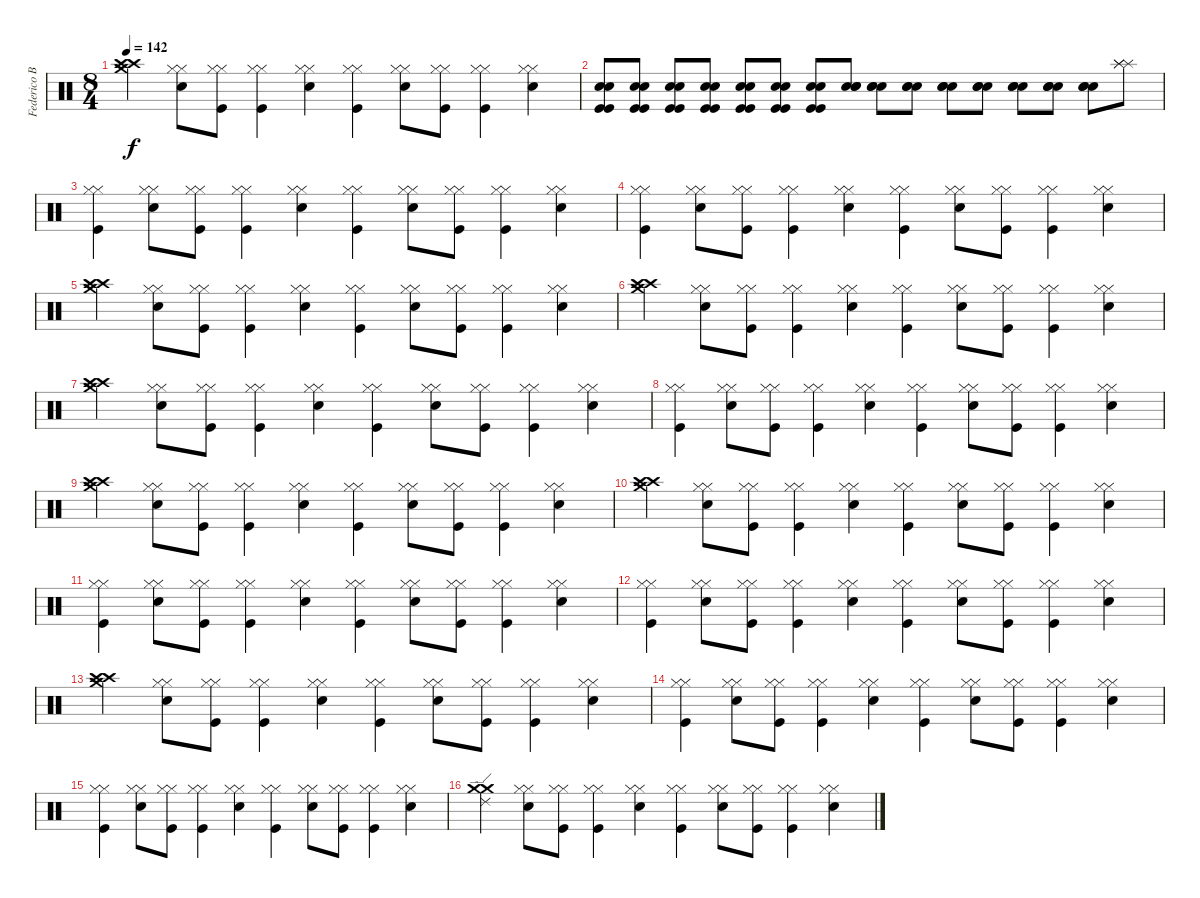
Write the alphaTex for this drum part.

\track ("Federico Bogliaccino-Drums" "Federico B") {instrument percussion}
\staff {score}
\articulation defaults
\ts (8 4)
\tempo 142
\clef neutral
\ks c
("Crash medium (hit)" "Crash high (hit)" "Crash high (hit)").4{dy f} ("Hi-Hat (closed)" "Hi-Hat (closed)" "Snare (hit) 2").8 ("Hi-Hat (closed)" "Hi-Hat (closed)" "Kick (hit)").8 ("Hi-Hat (closed)" "Hi-Hat (closed)" "Kick (hit)").4 ("Hi-Hat (closed)" "Hi-Hat (closed)" "Snare (hit) 2").4 ("Hi-Hat (closed)" "Hi-Hat (closed)" "Kick (hit)").4 ("Hi-Hat (closed)" "Hi-Hat (closed)" "Snare (hit) 2").8 ("Hi-Hat (closed)" "Hi-Hat (closed)" "Kick (hit)").8 ("Hi-Hat (closed)" "Hi-Hat (closed)" "Kick (hit)").4 ("Hi-Hat (closed)" "Hi-Hat (closed)" "Snare (hit) 2").4 |
("Kick (hit)" "Kick (hit)" "Snare (hit) 2" "Snare (hit) 2").8 ("Kick (hit)" "Kick (hit)" "Snare (hit) 2" "Snare (hit) 2").8 ("Kick (hit)" "Kick (hit)" "Snare (hit) 2" "Snare (hit) 2").8 ("Kick (hit)" "Kick (hit)" "Snare (hit) 2" "Snare (hit) 2").8 ("Kick (hit)" "Kick (hit)" "Snare (hit) 2" "Snare (hit) 2").8 ("Kick (hit)" "Kick (hit)" "Snare (hit) 2" "Snare (hit) 2").8 ("Kick (hit)" "Kick (hit)" "Snare (hit) 2" "Snare (hit) 2").8 ("Hand Clap (hit)" "Snare (hit) 2" "Snare (hit) 2").8 ("Hand Clap (hit)" "Snare (hit) 2" "Snare (hit) 2").8 ("Hand Clap (hit)" "Snare (hit) 2" "Snare (hit) 2").8 ("Hand Clap (hit)" "Snare (hit) 2" "Snare (hit) 2").8 ("Hand Clap (hit)" "Snare (hit) 2" "Snare (hit) 2").8 ("Hand Clap (hit)" "Snare (hit) 2" "Snare (hit) 2").8 ("Hand Clap (hit)" "Snare (hit) 2" "Snare (hit) 2").8 ("Hand Clap (hit)" "Snare (hit) 2" "Snare (hit) 2").8 ("Splash (hit)" "Splash (hit)" "Splash (hit)").8 |
("Hi-Hat (closed)" "Hi-Hat (closed)" "Kick (hit)").4 ("Hi-Hat (closed)" "Hi-Hat (closed)" "Snare (hit) 2").8 ("Hi-Hat (closed)" "Hi-Hat (closed)" "Kick (hit)").8 ("Hi-Hat (closed)" "Hi-Hat (closed)" "Kick (hit)").4 ("Hi-Hat (closed)" "Hi-Hat (closed)" "Snare (hit) 2").4 ("Hi-Hat (closed)" "Hi-Hat (closed)" "Kick (hit)").4 ("Hi-Hat (closed)" "Hi-Hat (closed)" "Snare (hit) 2").8 ("Hi-Hat (closed)" "Hi-Hat (closed)" "Kick (hit)").8 ("Hi-Hat (closed)" "Hi-Hat (closed)" "Kick (hit)").4 ("Hi-Hat (closed)" "Hi-Hat (closed)" "Snare (hit) 2").4 |
("Hi-Hat (closed)" "Hi-Hat (closed)" "Kick (hit)").4 ("Hi-Hat (closed)" "Hi-Hat (closed)" "Snare (hit) 2").8 ("Hi-Hat (closed)" "Hi-Hat (closed)" "Kick (hit)").8 ("Hi-Hat (closed)" "Hi-Hat (closed)" "Kick (hit)").4 ("Hi-Hat (closed)" "Hi-Hat (closed)" "Snare (hit) 2").4 ("Hi-Hat (closed)" "Hi-Hat (closed)" "Kick (hit)").4 ("Hi-Hat (closed)" "Hi-Hat (closed)" "Snare (hit) 2").8 ("Hi-Hat (closed)" "Hi-Hat (closed)" "Kick (hit)").8 ("Hi-Hat (closed)" "Hi-Hat (closed)" "Kick (hit)").4 ("Hi-Hat (closed)" "Hi-Hat (closed)" "Snare (hit) 2").4 |
("Crash medium (hit)" "Crash high (hit)" "Crash high (hit)").4 ("Hi-Hat (closed)" "Hi-Hat (closed)" "Snare (hit) 2").8 ("Hi-Hat (closed)" "Hi-Hat (closed)" "Kick (hit)").8 ("Hi-Hat (closed)" "Hi-Hat (closed)" "Kick (hit)").4 ("Hi-Hat (closed)" "Hi-Hat (closed)" "Snare (hit) 2").4 ("Hi-Hat (closed)" "Hi-Hat (closed)" "Kick (hit)").4 ("Hi-Hat (closed)" "Hi-Hat (closed)" "Snare (hit) 2").8 ("Hi-Hat (closed)" "Hi-Hat (closed)" "Kick (hit)").8 ("Hi-Hat (closed)" "Hi-Hat (closed)" "Kick (hit)").4 ("Hi-Hat (closed)" "Hi-Hat (closed)" "Snare (hit) 2").4 |
("Crash medium (hit)" "Crash high (hit)" "Crash high (hit)").4 ("Hi-Hat (closed)" "Hi-Hat (closed)" "Snare (hit) 2").8 ("Hi-Hat (closed)" "Hi-Hat (closed)" "Kick (hit)").8 ("Hi-Hat (closed)" "Hi-Hat (closed)" "Kick (hit)").4 ("Hi-Hat (closed)" "Hi-Hat (closed)" "Snare (hit) 2").4 ("Hi-Hat (closed)" "Hi-Hat (closed)" "Kick (hit)").4 ("Hi-Hat (closed)" "Hi-Hat (closed)" "Snare (hit) 2").8 ("Hi-Hat (closed)" "Hi-Hat (closed)" "Kick (hit)").8 ("Hi-Hat (closed)" "Hi-Hat (closed)" "Kick (hit)").4 ("Hi-Hat (closed)" "Hi-Hat (closed)" "Snare (hit) 2").4 |
("Crash medium (hit)" "Crash high (hit)" "Crash high (hit)").4 ("Hi-Hat (closed)" "Hi-Hat (closed)" "Snare (hit) 2").8 ("Hi-Hat (closed)" "Hi-Hat (closed)" "Kick (hit)").8 ("Hi-Hat (closed)" "Hi-Hat (closed)" "Kick (hit)").4 ("Hi-Hat (closed)" "Hi-Hat (closed)" "Snare (hit) 2").4 ("Hi-Hat (closed)" "Hi-Hat (closed)" "Kick (hit)").4 ("Hi-Hat (closed)" "Hi-Hat (closed)" "Snare (hit) 2").8 ("Hi-Hat (closed)" "Hi-Hat (closed)" "Kick (hit)").8 ("Hi-Hat (closed)" "Hi-Hat (closed)" "Kick (hit)").4 ("Hi-Hat (closed)" "Hi-Hat (closed)" "Snare (hit) 2").4 |
("Hi-Hat (closed)" "Hi-Hat (closed)" "Kick (hit)").4 ("Hi-Hat (closed)" "Hi-Hat (closed)" "Snare (hit) 2").8 ("Hi-Hat (closed)" "Hi-Hat (closed)" "Kick (hit)").8 ("Hi-Hat (closed)" "Hi-Hat (closed)" "Kick (hit)").4 ("Hi-Hat (closed)" "Hi-Hat (closed)" "Snare (hit) 2").4 ("Hi-Hat (closed)" "Hi-Hat (closed)" "Kick (hit)").4 ("Hi-Hat (closed)" "Hi-Hat (closed)" "Snare (hit) 2").8 ("Hi-Hat (closed)" "Hi-Hat (closed)" "Kick (hit)").8 ("Hi-Hat (closed)" "Hi-Hat (closed)" "Kick (hit)").4 ("Hi-Hat (closed)" "Hi-Hat (closed)" "Snare (hit) 2").4 |
("Crash medium (hit)" "Crash high (hit)" "Crash high (hit)").4 ("Hi-Hat (closed)" "Hi-Hat (closed)" "Snare (hit) 2").8 ("Hi-Hat (closed)" "Hi-Hat (closed)" "Kick (hit)").8 ("Hi-Hat (closed)" "Hi-Hat (closed)" "Kick (hit)").4 ("Hi-Hat (closed)" "Hi-Hat (closed)" "Snare (hit) 2").4 ("Hi-Hat (closed)" "Hi-Hat (closed)" "Kick (hit)").4 ("Hi-Hat (closed)" "Hi-Hat (closed)" "Snare (hit) 2").8 ("Hi-Hat (closed)" "Hi-Hat (closed)" "Kick (hit)").8 ("Hi-Hat (closed)" "Hi-Hat (closed)" "Kick (hit)").4 ("Hi-Hat (closed)" "Hi-Hat (closed)" "Snare (hit) 2").4 |
("Crash medium (hit)" "Crash high (hit)" "Crash high (hit)").4 ("Hi-Hat (closed)" "Hi-Hat (closed)" "Snare (hit) 2").8 ("Hi-Hat (closed)" "Hi-Hat (closed)" "Kick (hit)").8 ("Hi-Hat (closed)" "Hi-Hat (closed)" "Kick (hit)").4 ("Hi-Hat (closed)" "Hi-Hat (closed)" "Snare (hit) 2").4 ("Hi-Hat (closed)" "Hi-Hat (closed)" "Kick (hit)").4 ("Hi-Hat (closed)" "Hi-Hat (closed)" "Snare (hit) 2").8 ("Hi-Hat (closed)" "Hi-Hat (closed)" "Kick (hit)").8 ("Hi-Hat (closed)" "Hi-Hat (closed)" "Kick (hit)").4 ("Hi-Hat (closed)" "Hi-Hat (closed)" "Snare (hit) 2").4 |
("Hi-Hat (closed)" "Hi-Hat (closed)" "Kick (hit)").4 ("Hi-Hat (closed)" "Hi-Hat (closed)" "Snare (hit) 2").8 ("Hi-Hat (closed)" "Hi-Hat (closed)" "Kick (hit)").8 ("Hi-Hat (closed)" "Hi-Hat (closed)" "Kick (hit)").4 ("Hi-Hat (closed)" "Hi-Hat (closed)" "Snare (hit) 2").4 ("Hi-Hat (closed)" "Hi-Hat (closed)" "Kick (hit)").4 ("Hi-Hat (closed)" "Hi-Hat (closed)" "Snare (hit) 2").8 ("Hi-Hat (closed)" "Hi-Hat (closed)" "Kick (hit)").8 ("Hi-Hat (closed)" "Hi-Hat (closed)" "Kick (hit)").4 ("Hi-Hat (closed)" "Hi-Hat (closed)" "Snare (hit) 2").4 |
("Hi-Hat (closed)" "Hi-Hat (closed)" "Kick (hit)").4 ("Hi-Hat (closed)" "Hi-Hat (closed)" "Snare (hit) 2").8 ("Hi-Hat (closed)" "Hi-Hat (closed)" "Kick (hit)").8 ("Hi-Hat (closed)" "Hi-Hat (closed)" "Kick (hit)").4 ("Hi-Hat (closed)" "Hi-Hat (closed)" "Snare (hit) 2").4 ("Hi-Hat (closed)" "Hi-Hat (closed)" "Kick (hit)").4 ("Hi-Hat (closed)" "Hi-Hat (closed)" "Snare (hit) 2").8 ("Hi-Hat (closed)" "Hi-Hat (closed)" "Kick (hit)").8 ("Hi-Hat (closed)" "Hi-Hat (closed)" "Kick (hit)").4 ("Hi-Hat (closed)" "Hi-Hat (closed)" "Snare (hit) 2").4 |
("Crash high (hit)" "Crash high (hit)" "Crash medium (hit)").4 ("Hi-Hat (closed)" "Hi-Hat (closed)" "Snare (hit) 2").8 ("Hi-Hat (closed)" "Hi-Hat (closed)" "Kick (hit)").8 ("Hi-Hat (closed)" "Hi-Hat (closed)" "Kick (hit)").4 ("Hi-Hat (closed)" "Hi-Hat (closed)" "Snare (hit) 2").4 ("Hi-Hat (closed)" "Hi-Hat (closed)" "Kick (hit)").4 ("Hi-Hat (closed)" "Hi-Hat (closed)" "Snare (hit) 2").8 ("Hi-Hat (closed)" "Hi-Hat (closed)" "Kick (hit)").8 ("Hi-Hat (closed)" "Hi-Hat (closed)" "Kick (hit)").4 ("Hi-Hat (closed)" "Hi-Hat (closed)" "Snare (hit) 2").4 |
("Hi-Hat (closed)" "Hi-Hat (closed)" "Kick (hit)").4 ("Hi-Hat (closed)" "Hi-Hat (closed)" "Snare (hit) 2").8 ("Hi-Hat (closed)" "Hi-Hat (closed)" "Kick (hit)").8 ("Hi-Hat (closed)" "Hi-Hat (closed)" "Kick (hit)").4 ("Hi-Hat (closed)" "Hi-Hat (closed)" "Snare (hit) 2").4 ("Hi-Hat (closed)" "Hi-Hat (closed)" "Kick (hit)").4 ("Hi-Hat (closed)" "Hi-Hat (closed)" "Snare (hit) 2").8 ("Hi-Hat (closed)" "Hi-Hat (closed)" "Kick (hit)").8 ("Hi-Hat (closed)" "Hi-Hat (closed)" "Kick (hit)").4 ("Hi-Hat (closed)" "Hi-Hat (closed)" "Snare (hit) 2").4 |
("Hi-Hat (closed)" "Hi-Hat (closed)" "Kick (hit)").4 ("Hi-Hat (closed)" "Hi-Hat (closed)" "Snare (hit) 2").8 ("Hi-Hat (closed)" "Hi-Hat (closed)" "Kick (hit)").8 ("Hi-Hat (closed)" "Hi-Hat (closed)" "Kick (hit)").4 ("Hi-Hat (closed)" "Hi-Hat (closed)" "Snare (hit) 2").4 ("Hi-Hat (closed)" "Hi-Hat (closed)" "Kick (hit)").4 ("Hi-Hat (closed)" "Hi-Hat (closed)" "Snare (hit) 2").8 ("Hi-Hat (closed)" "Hi-Hat (closed)" "Kick (hit)").8 ("Hi-Hat (closed)" "Hi-Hat (closed)" "Kick (hit)").4 ("Hi-Hat (closed)" "Hi-Hat (closed)" "Snare (hit) 2").4 |
("Crash medium (hit)" "Crash medium (hit)" "Ride (edge) 2").4 ("Hi-Hat (closed)" "Hi-Hat (closed)" "Snare (hit) 2").8 ("Hi-Hat (closed)" "Hi-Hat (closed)" "Kick (hit)").8 ("Hi-Hat (closed)" "Hi-Hat (closed)" "Kick (hit)").4 ("Hi-Hat (closed)" "Hi-Hat (closed)" "Snare (hit) 2").4 ("Hi-Hat (closed)" "Hi-Hat (closed)" "Kick (hit)").4 ("Hi-Hat (closed)" "Hi-Hat (closed)" "Snare (hit) 2").8 ("Hi-Hat (closed)" "Hi-Hat (closed)" "Kick (hit)").8 ("Hi-Hat (closed)" "Hi-Hat (closed)" "Kick (hit)").4 ("Hi-Hat (closed)" "Hi-Hat (closed)" "Snare (hit) 2").4
